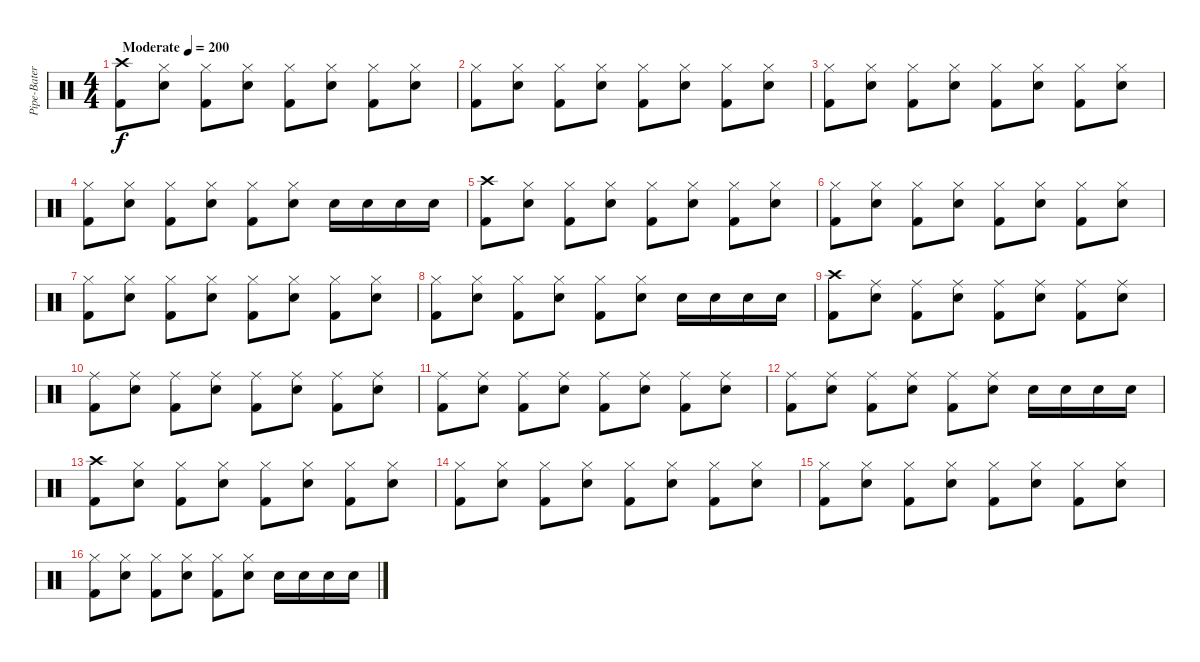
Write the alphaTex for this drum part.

\track ("Pipe-Bateria" "Pipe-Bater") {instrument percussion}
\staff {score}
\articulation defaults
\ts (4 4)
\tempo (200 "Moderate")
\clef neutral
\ks c
("Kick (hit) 2" "Crash high (hit)").8{dy f} ("Snare (hit) 2" "Hi-Hat (closed)").8 ("Kick (hit) 2" "Hi-Hat (closed)").8 ("Snare (hit) 2" "Hi-Hat (closed)").8 ("Kick (hit) 2" "Hi-Hat (closed)").8 ("Snare (hit) 2" "Hi-Hat (closed)").8 ("Kick (hit) 2" "Hi-Hat (closed)").8 ("Snare (hit) 2" "Hi-Hat (closed)").8 |
("Kick (hit) 2" "Hi-Hat (closed)").8 ("Snare (hit) 2" "Hi-Hat (closed)").8 ("Kick (hit) 2" "Hi-Hat (closed)").8 ("Snare (hit) 2" "Hi-Hat (closed)").8 ("Kick (hit) 2" "Hi-Hat (closed)").8 ("Snare (hit) 2" "Hi-Hat (closed)").8 ("Kick (hit) 2" "Hi-Hat (closed)").8 ("Snare (hit) 2" "Hi-Hat (closed)").8 |
("Kick (hit) 2" "Hi-Hat (closed)").8 ("Snare (hit) 2" "Hi-Hat (closed)").8 ("Kick (hit) 2" "Hi-Hat (closed)").8 ("Snare (hit) 2" "Hi-Hat (closed)").8 ("Kick (hit) 2" "Hi-Hat (closed)").8 ("Snare (hit) 2" "Hi-Hat (closed)").8 ("Kick (hit) 2" "Hi-Hat (closed)").8 ("Snare (hit) 2" "Hi-Hat (closed)").8 |
("Kick (hit) 2" "Hi-Hat (closed)").8 ("Snare (hit) 2" "Hi-Hat (closed)").8 ("Kick (hit) 2" "Hi-Hat (closed)").8 ("Snare (hit) 2" "Hi-Hat (closed)").8 ("Kick (hit) 2" "Hi-Hat (closed)").8 ("Snare (hit) 2" "Hi-Hat (closed)").8 "Snare (hit) 2".16 "Snare (hit) 2".16 "Snare (hit) 2".16 "Snare (hit) 2".16 |
("Kick (hit) 2" "Crash high (hit)").8 ("Snare (hit) 2" "Hi-Hat (closed)").8 ("Kick (hit) 2" "Hi-Hat (closed)").8 ("Snare (hit) 2" "Hi-Hat (closed)").8 ("Kick (hit) 2" "Hi-Hat (closed)").8 ("Snare (hit) 2" "Hi-Hat (closed)").8 ("Kick (hit) 2" "Hi-Hat (closed)").8 ("Snare (hit) 2" "Hi-Hat (closed)").8 |
("Kick (hit) 2" "Hi-Hat (closed)").8 ("Snare (hit) 2" "Hi-Hat (closed)").8 ("Kick (hit) 2" "Hi-Hat (closed)").8 ("Snare (hit) 2" "Hi-Hat (closed)").8 ("Kick (hit) 2" "Hi-Hat (closed)").8 ("Snare (hit) 2" "Hi-Hat (closed)").8 ("Kick (hit) 2" "Hi-Hat (closed)").8 ("Snare (hit) 2" "Hi-Hat (closed)").8 |
("Kick (hit) 2" "Hi-Hat (closed)").8 ("Snare (hit) 2" "Hi-Hat (closed)").8 ("Kick (hit) 2" "Hi-Hat (closed)").8 ("Snare (hit) 2" "Hi-Hat (closed)").8 ("Kick (hit) 2" "Hi-Hat (closed)").8 ("Snare (hit) 2" "Hi-Hat (closed)").8 ("Kick (hit) 2" "Hi-Hat (closed)").8 ("Snare (hit) 2" "Hi-Hat (closed)").8 |
("Kick (hit) 2" "Hi-Hat (closed)").8 ("Snare (hit) 2" "Hi-Hat (closed)").8 ("Kick (hit) 2" "Hi-Hat (closed)").8 ("Snare (hit) 2" "Hi-Hat (closed)").8 ("Kick (hit) 2" "Hi-Hat (closed)").8 ("Snare (hit) 2" "Hi-Hat (closed)").8 "Snare (hit) 2".16 "Snare (hit) 2".16 "Snare (hit) 2".16 "Snare (hit) 2".16 |
("Kick (hit) 2" "Crash high (hit)").8 ("Snare (hit) 2" "Ride (middle)").8 ("Kick (hit) 2" "Ride (middle)").8 ("Snare (hit) 2" "Ride (middle)").8 ("Kick (hit) 2" "Ride (middle)").8 ("Snare (hit) 2" "Ride (middle)").8 ("Kick (hit) 2" "Ride (middle)").8 ("Snare (hit) 2" "Ride (middle)").8 |
("Kick (hit) 2" "Ride (middle)").8 ("Snare (hit) 2" "Ride (middle)").8 ("Kick (hit) 2" "Ride (middle)").8 ("Snare (hit) 2" "Ride (middle)").8 ("Kick (hit) 2" "Ride (middle)").8 ("Snare (hit) 2" "Ride (middle)").8 ("Kick (hit) 2" "Ride (middle)").8 ("Snare (hit) 2" "Ride (middle)").8 |
("Kick (hit) 2" "Ride (middle)").8 ("Snare (hit) 2" "Ride (middle)").8 ("Kick (hit) 2" "Ride (middle)").8 ("Snare (hit) 2" "Ride (middle)").8 ("Kick (hit) 2" "Ride (middle)").8 ("Snare (hit) 2" "Ride (middle)").8 ("Kick (hit) 2" "Ride (middle)").8 ("Snare (hit) 2" "Ride (middle)").8 |
("Kick (hit) 2" "Ride (middle)").8 ("Snare (hit) 2" "Ride (middle)").8 ("Kick (hit) 2" "Ride (middle)").8 ("Snare (hit) 2" "Ride (middle)").8 ("Kick (hit) 2" "Ride (middle)").8 ("Snare (hit) 2" "Ride (middle)").8 "Snare (hit) 2".16 "Snare (hit) 2".16 "Snare (hit) 2".16 "Snare (hit) 2".16 |
("Kick (hit) 2" "Crash high (hit)").8 ("Snare (hit) 2" "Hi-Hat (closed)").8 ("Kick (hit) 2" "Hi-Hat (closed)").8 ("Snare (hit) 2" "Hi-Hat (closed)").8 ("Kick (hit) 2" "Hi-Hat (closed)").8 ("Snare (hit) 2" "Hi-Hat (closed)").8 ("Kick (hit) 2" "Hi-Hat (closed)").8 ("Snare (hit) 2" "Hi-Hat (closed)").8 |
("Kick (hit) 2" "Hi-Hat (closed)").8 ("Snare (hit) 2" "Hi-Hat (closed)").8 ("Kick (hit) 2" "Hi-Hat (closed)").8 ("Snare (hit) 2" "Hi-Hat (closed)").8 ("Kick (hit) 2" "Hi-Hat (closed)").8 ("Snare (hit) 2" "Hi-Hat (closed)").8 ("Kick (hit) 2" "Hi-Hat (closed)").8 ("Snare (hit) 2" "Hi-Hat (closed)").8 |
("Kick (hit) 2" "Hi-Hat (closed)").8 ("Snare (hit) 2" "Hi-Hat (closed)").8 ("Kick (hit) 2" "Hi-Hat (closed)").8 ("Snare (hit) 2" "Hi-Hat (closed)").8 ("Kick (hit) 2" "Hi-Hat (closed)").8 ("Snare (hit) 2" "Hi-Hat (closed)").8 ("Kick (hit) 2" "Hi-Hat (closed)").8 ("Snare (hit) 2" "Hi-Hat (closed)").8 |
("Kick (hit) 2" "Hi-Hat (closed)").8 ("Snare (hit) 2" "Hi-Hat (closed)").8 ("Kick (hit) 2" "Hi-Hat (closed)").8 ("Snare (hit) 2" "Hi-Hat (closed)").8 ("Kick (hit) 2" "Hi-Hat (closed)").8 ("Snare (hit) 2" "Hi-Hat (closed)").8 "Snare (hit) 2".16 "Snare (hit) 2".16 "Snare (hit) 2".16 "Snare (hit) 2".16
